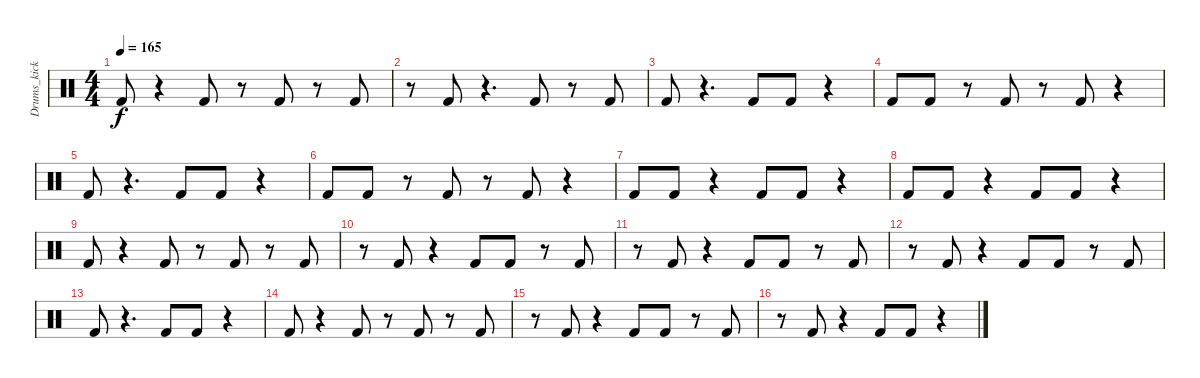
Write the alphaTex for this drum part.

\track ("Drums_kick" "Drums_kick") {instrument percussion}
\staff {score}
\articulation defaults
\ts (4 4)
\tempo 165
\clef neutral
\ks c "Kick (hit) 2".8{dy f}
r.4 "Kick (hit) 2".8 r.8 "Kick (hit) 2".8 r.8 "Kick (hit) 2".8 |
r.8 "Kick (hit) 2".8 r.4{d} "Kick (hit) 2".8 r.8 "Kick (hit) 2".8 |
"Kick (hit) 2".8 r.4{d} "Kick (hit) 2".8 "Kick (hit) 2".8 r.4 |
"Kick (hit) 2".8 "Kick (hit) 2".8 r.8 "Kick (hit) 2".8 r.8 "Kick (hit) 2".8 r.4 |
"Kick (hit) 2".8 r.4{d} "Kick (hit) 2".8 "Kick (hit) 2".8 r.4 |
"Kick (hit) 2".8 "Kick (hit) 2".8 r.8 "Kick (hit) 2".8 r.8 "Kick (hit) 2".8 r.4 |
"Kick (hit) 2".8 "Kick (hit) 2".8 r.4 "Kick (hit) 2".8 "Kick (hit) 2".8 r.4 |
"Kick (hit) 2".8 "Kick (hit) 2".8 r.4 "Kick (hit) 2".8 "Kick (hit) 2".8 r.4 |
"Kick (hit) 2".8 r.4 "Kick (hit) 2".8 r.8 "Kick (hit) 2".8 r.8 "Kick (hit) 2".8 |
r.8 "Kick (hit) 2".8 r.4 "Kick (hit) 2".8 "Kick (hit) 2".8 r.8 "Kick (hit) 2".8 |
r.8 "Kick (hit) 2".8 r.4 "Kick (hit) 2".8 "Kick (hit) 2".8 r.8 "Kick (hit) 2".8 |
r.8 "Kick (hit) 2".8 r.4 "Kick (hit) 2".8 "Kick (hit) 2".8 r.8 "Kick (hit) 2".8 |
"Kick (hit) 2".8 r.4{d} "Kick (hit) 2".8 "Kick (hit) 2".8 r.4 |
"Kick (hit) 2".8 r.4 "Kick (hit) 2".8 r.8 "Kick (hit) 2".8 r.8 "Kick (hit) 2".8 |
r.8 "Kick (hit) 2".8 r.4 "Kick (hit) 2".8 "Kick (hit) 2".8 r.8 "Kick (hit) 2".8 |
r.8 "Kick (hit) 2".8 r.4 "Kick (hit) 2".8 "Kick (hit) 2".8 r.4
